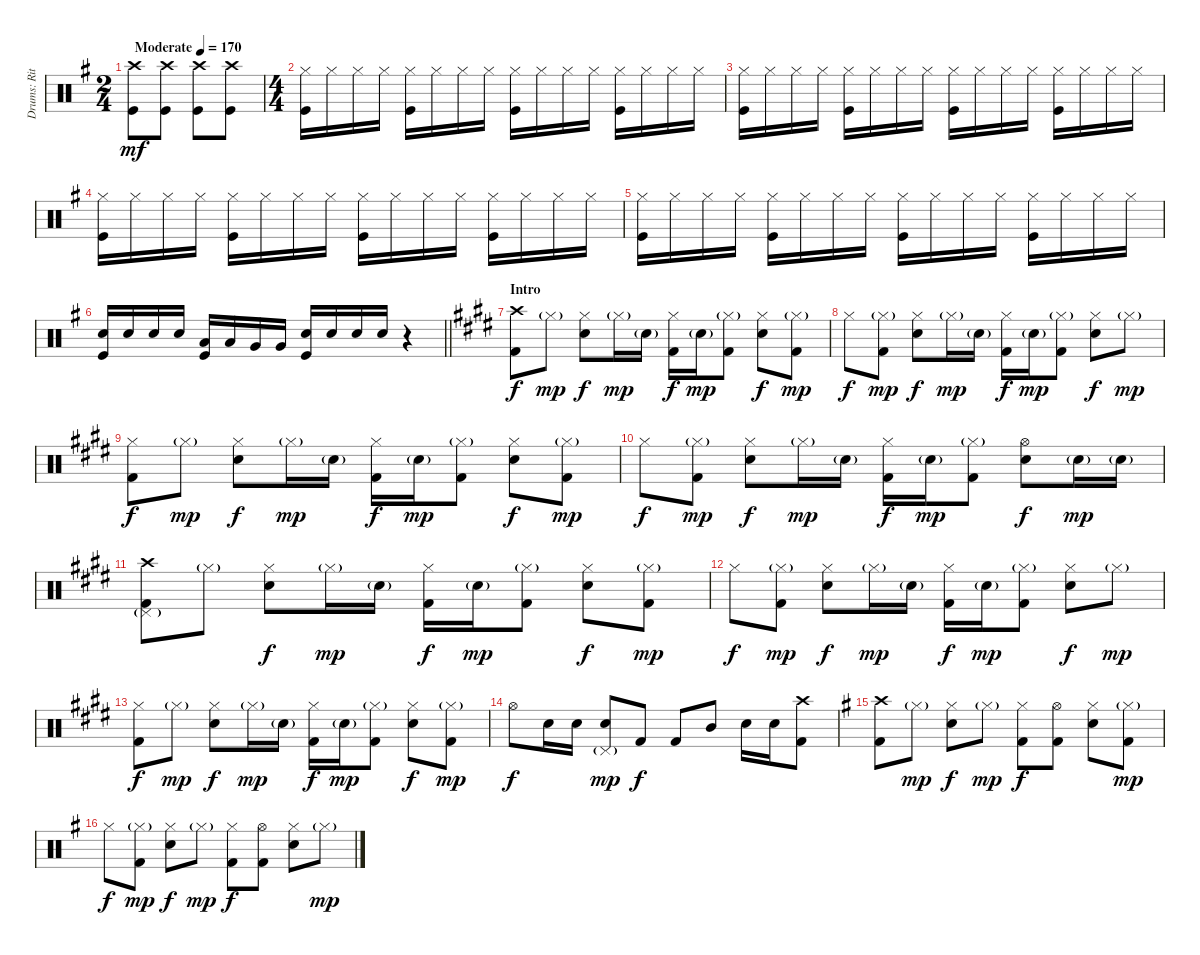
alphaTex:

\track ("Drums: Ritsu Tainaka" "Drums: Rit") {instrument percussion}
\staff {score}
\articulation defaults
\ts (2 4)
\tempo (170 "Moderate")
\clef neutral
\ks eminor
("Crash high (hit)" "Kick (hit)").8{dy mf} ("Crash high (hit)" "Kick (hit)").8 ("Crash high (hit)" "Kick (hit)").8 ("Crash high (hit)" "Kick (hit)").8 |
\ts (4 4)
("Hi-Hat (closed)" "Kick (hit)").16 "Hi-Hat (closed)".16 "Hi-Hat (closed)".16 "Hi-Hat (closed)".16 ("Hi-Hat (closed)" "Kick (hit)").16 "Hi-Hat (closed)".16 "Hi-Hat (closed)".16 "Hi-Hat (closed)".16 ("Hi-Hat (closed)" "Kick (hit)").16 "Hi-Hat (closed)".16 "Hi-Hat (closed)".16 "Hi-Hat (closed)".16 ("Hi-Hat (closed)" "Kick (hit)").16 "Hi-Hat (closed)".16 "Hi-Hat (closed)".16 "Hi-Hat (closed)".16 |
("Hi-Hat (closed)" "Kick (hit)").16 "Hi-Hat (closed)".16 "Hi-Hat (closed)".16 "Hi-Hat (closed)".16 ("Hi-Hat (closed)" "Kick (hit)").16 "Hi-Hat (closed)".16 "Hi-Hat (closed)".16 "Hi-Hat (closed)".16 ("Hi-Hat (closed)" "Kick (hit)").16 "Hi-Hat (closed)".16 "Hi-Hat (closed)".16 "Hi-Hat (closed)".16 ("Hi-Hat (closed)" "Kick (hit)").16 "Hi-Hat (closed)".16 "Hi-Hat (closed)".16 "Hi-Hat (closed)".16 |
("Hi-Hat (closed)" "Kick (hit)").16 "Hi-Hat (closed)".16 "Hi-Hat (closed)".16 "Hi-Hat (closed)".16 ("Hi-Hat (closed)" "Kick (hit)").16 "Hi-Hat (closed)".16 "Hi-Hat (closed)".16 "Hi-Hat (closed)".16 ("Hi-Hat (closed)" "Kick (hit)").16 "Hi-Hat (closed)".16 "Hi-Hat (closed)".16 "Hi-Hat (closed)".16 ("Hi-Hat (closed)" "Kick (hit)").16 "Hi-Hat (closed)".16 "Hi-Hat (closed)".16 "Hi-Hat (closed)".16 |
("Hi-Hat (closed)" "Kick (hit)").16 "Hi-Hat (closed)".16 "Hi-Hat (closed)".16 "Hi-Hat (closed)".16 ("Hi-Hat (closed)" "Kick (hit)").16 "Hi-Hat (closed)".16 "Hi-Hat (closed)".16 "Hi-Hat (closed)".16 ("Hi-Hat (closed)" "Kick (hit)").16 "Hi-Hat (closed)".16 "Hi-Hat (closed)".16 "Hi-Hat (closed)".16 ("Hi-Hat (closed)" "Kick (hit)").16 "Hi-Hat (closed)".16 "Hi-Hat (closed)".16 "Hi-Hat (closed)".16 |
\barLineRight lightlight
("Snare (hit) 2" "Kick (hit)").16 "Snare (hit) 2".16 "Snare (hit) 2".16 "Snare (hit) 2".16 ("Low Tom (hit)" "Kick (hit)").16 "Low Tom (hit)".16 "Very Low Tom (hit)".16 "Very Low Tom (hit)".16 ("Snare (hit) 2" "Kick (hit)").16 "Snare (hit) 2".16 "Snare (hit) 2".16 "Snare (hit) 2".16 r.4 |
\section ("" "Intro")
\ks e
("Crash high (hit)" "Kick (hit) 2").8{dy f} "Hi-Hat (closed)"{g}.8{dy mp} ("Hi-Hat (closed)" "Electric Snare (hit)").8{dy f} "Hi-Hat (closed)"{g}.16{dy mp} "Electric Snare (hit)"{g}.16 ("Hi-Hat (closed)" "Kick (hit) 2").16{dy f} "Electric Snare (hit)"{g}.16{dy mp} ("Hi-Hat (closed)"{g} "Kick (hit) 2").8 ("Hi-Hat (closed)" "Electric Snare (hit)").8{dy f} ("Hi-Hat (closed)"{g} "Kick (hit) 2").8{dy mp} |
"Hi-Hat (closed)".8{dy f} ("Hi-Hat (closed)"{g} "Kick (hit) 2").8{dy mp} ("Hi-Hat (closed)" "Electric Snare (hit)").8{dy f} "Hi-Hat (closed)"{g}.16{dy mp} "Electric Snare (hit)"{g}.16 ("Hi-Hat (closed)" "Kick (hit) 2").16{dy f} "Electric Snare (hit)"{g}.16{dy mp} ("Hi-Hat (closed)"{g} "Kick (hit) 2").8 ("Hi-Hat (closed)" "Electric Snare (hit)").8{dy f} "Hi-Hat (closed)"{g}.8{dy mp} |
("Hi-Hat (closed)" "Kick (hit) 2").8{dy f} "Hi-Hat (closed)"{g}.8{dy mp} ("Hi-Hat (closed)" "Electric Snare (hit)").8{dy f} "Hi-Hat (closed)"{g}.16{dy mp} "Electric Snare (hit)"{g}.16 ("Hi-Hat (closed)" "Kick (hit) 2").16{dy f} "Electric Snare (hit)"{g}.16{dy mp} ("Hi-Hat (closed)"{g} "Kick (hit) 2").8 ("Hi-Hat (closed)" "Electric Snare (hit)").8{dy f} ("Hi-Hat (closed)"{g} "Kick (hit) 2").8{dy mp} |
"Hi-Hat (closed)".8{dy f} ("Hi-Hat (closed)"{g} "Kick (hit) 2").8{dy mp} ("Hi-Hat (closed)" "Electric Snare (hit)").8{dy f} "Hi-Hat (closed)"{g}.16{dy mp} "Electric Snare (hit)"{g}.16 ("Hi-Hat (closed)" "Kick (hit) 2").16{dy f} "Electric Snare (hit)"{g}.16{dy mp} ("Hi-Hat (closed)"{g} "Kick (hit) 2").8 ("Hi-Hat (open)" "Electric Snare (hit)").8{dy f} "Electric Snare (hit)"{g}.16{dy mp} "Electric Snare (hit)"{g}.16 |
("Crash high (hit)" "Pedal Hi-Hat (hit)"{g} "Kick (hit) 2").8 "Hi-Hat (closed)"{g}.8 ("Hi-Hat (closed)" "Electric Snare (hit)").8{dy f} "Hi-Hat (closed)"{g}.16{dy mp} "Electric Snare (hit)"{g}.16 ("Hi-Hat (closed)" "Kick (hit) 2").16{dy f} "Electric Snare (hit)"{g}.16{dy mp} ("Hi-Hat (closed)"{g} "Kick (hit) 2").8 ("Hi-Hat (closed)" "Electric Snare (hit)").8{dy f} ("Hi-Hat (closed)"{g} "Kick (hit) 2").8{dy mp} |
"Hi-Hat (closed)".8{dy f} ("Hi-Hat (closed)"{g} "Kick (hit) 2").8{dy mp} ("Hi-Hat (closed)" "Electric Snare (hit)").8{dy f} "Hi-Hat (closed)"{g}.16{dy mp} "Electric Snare (hit)"{g}.16 ("Hi-Hat (closed)" "Kick (hit) 2").16{dy f} "Electric Snare (hit)"{g}.16{dy mp} ("Hi-Hat (closed)"{g} "Kick (hit) 2").8 ("Hi-Hat (closed)" "Electric Snare (hit)").8{dy f} "Hi-Hat (closed)"{g}.8{dy mp} |
("Hi-Hat (closed)" "Kick (hit) 2").8{dy f} "Hi-Hat (closed)"{g}.8{dy mp} ("Hi-Hat (closed)" "Electric Snare (hit)").8{dy f} "Hi-Hat (closed)"{g}.16{dy mp} "Electric Snare (hit)"{g}.16 ("Hi-Hat (closed)" "Kick (hit) 2").16{dy f} "Electric Snare (hit)"{g}.16{dy mp} ("Hi-Hat (closed)"{g} "Kick (hit) 2").8 ("Hi-Hat (closed)" "Electric Snare (hit)").8{dy f} ("Hi-Hat (closed)"{g} "Kick (hit) 2").8{dy mp} |
"Hi-Hat (open)".8{dy f} "Electric Snare (hit)".16 "Electric Snare (hit)".16 ("Pedal Hi-Hat (hit)"{g} "Electric Snare (hit)").8{dy mp} "Kick (hit) 2".8{dy f} "Kick (hit) 2".8 "Mid Tom (hit)".8 "Electric Snare (hit)".16 "Electric Snare (hit)".16 ("Crash high (hit)" "Kick (hit) 2").8 |
\ks g
("Crash high (hit)" "Kick (hit) 2").8 "Hi-Hat (closed)"{g}.8{dy mp} ("Hi-Hat (closed)" "Electric Snare (hit)").8{dy f} "Hi-Hat (closed)"{g}.8{dy mp} ("Hi-Hat (closed)" "Kick (hit) 2").8{dy f} ("Hi-Hat (open)" "Kick (hit) 2").8 ("Hi-Hat (closed)" "Electric Snare (hit)").8 ("Hi-Hat (closed)"{g} "Kick (hit) 2").8{dy mp} |
"Hi-Hat (closed)".8{dy f} ("Hi-Hat (closed)"{g} "Kick (hit) 2").8{dy mp} ("Hi-Hat (closed)" "Electric Snare (hit)").8{dy f} "Hi-Hat (closed)"{g}.8{dy mp} ("Hi-Hat (closed)" "Kick (hit) 2").8{dy f} ("Hi-Hat (open)" "Kick (hit) 2").8 ("Hi-Hat (closed)" "Electric Snare (hit)").8 "Hi-Hat (closed)"{g}.8{dy mp}
